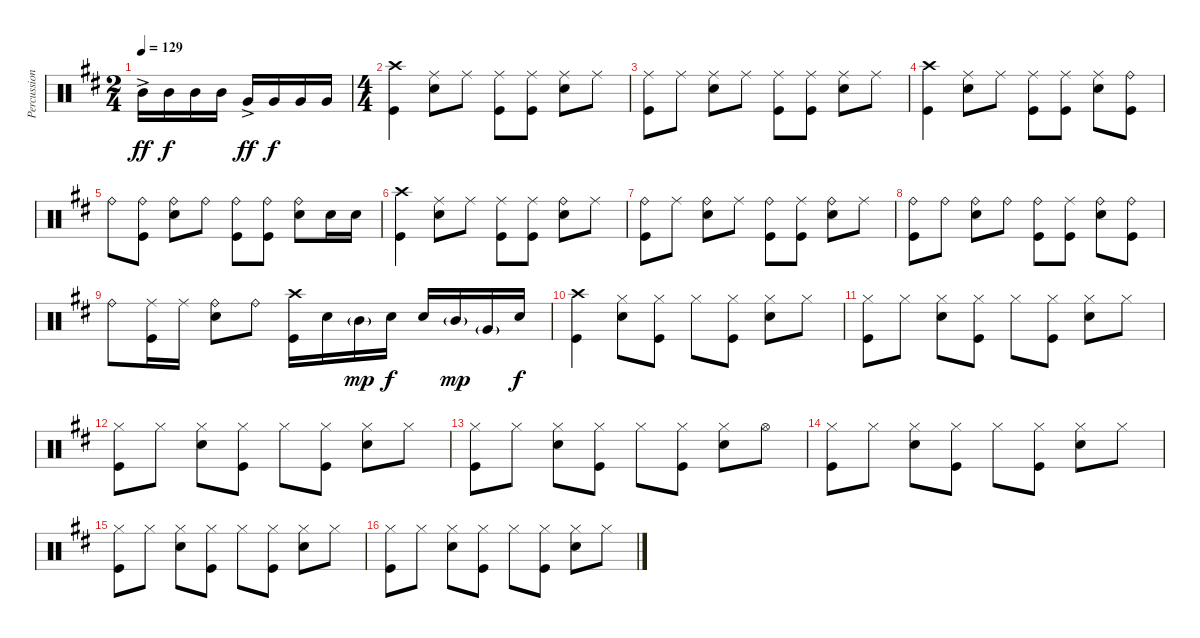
\track ("Percussion" "Percussion") {instrument percussion}
\staff {score}
\articulation defaults
\ts (2 4)
\tempo 129
\clef neutral
\ks bminor "Mid Tom (hit)"{ac}.16{dy ff} "Mid Tom (hit)".16{dy f} "Mid Tom (hit)".16 "Mid Tom (hit)".16 "Very Low Tom (hit)"{ac}.16{dy ff} "Very Low Tom (hit)".16{dy f} "Very Low Tom (hit)".16 "Very Low Tom (hit)".16
|
\ts (4 4)
("Crash high (hit)" "Kick (hit)").4 ("Ride (middle)" "Snare (hit) 2").8 "Ride (middle)".8 ("Ride (middle)" "Kick (hit)").8 ("Ride (middle)" "Kick (hit)").8 ("Ride (middle)" "Snare (hit) 2").8 "Ride (middle)".8 |
("Ride (middle)" "Kick (hit)").8 "Ride (middle)".8 ("Ride (middle)" "Snare (hit) 2").8 "Ride (middle)".8 ("Ride (middle)" "Kick (hit)").8 ("Ride (middle)" "Kick (hit)").8 ("Ride (middle)" "Snare (hit) 2").8 "Ride (middle)".8 |
("Crash high (hit)" "Kick (hit)").4 ("Ride (middle)" "Snare (hit) 2").8 "Ride (middle)".8 ("Ride (middle)" "Kick (hit)").8 ("Ride (middle)" "Kick (hit)").8 ("Ride (middle)" "Snare (hit) 2").8 ("Ride (bell)" "Kick (hit)").8 |
"Ride (bell)".8 ("Ride (bell)" "Kick (hit)").8 ("Ride (bell)" "Snare (hit) 2").8 "Ride (bell)".8 ("Ride (bell)" "Kick (hit)").8 ("Ride (bell)" "Kick (hit)").8 ("Ride (bell)" "Snare (hit) 2").8 "Snare (hit) 2".16 "Snare (hit) 2".16 |
("Crash high (hit)" "Kick (hit)").4 ("Ride (middle)" "Snare (hit) 2").8 "Ride (middle)".8 ("Ride (middle)" "Kick (hit)").8 ("Ride (middle)" "Kick (hit)").8 ("Ride (bell)" "Snare (hit) 2").8 "Ride (middle)".8 |
("Ride (bell)" "Kick (hit)").8 "Ride (middle)".8 ("Ride (bell)" "Snare (hit) 2").8 "Ride (middle)".8 ("Ride (bell)" "Kick (hit)").8 ("Ride (middle)" "Kick (hit)").8 ("Ride (bell)" "Snare (hit) 2").8 "Ride (middle)".8 |
("Ride (bell)" "Kick (hit)").8 "Ride (bell)".8 ("Ride (bell)" "Snare (hit) 2").8 "Ride (bell)".8 ("Ride (bell)" "Kick (hit)").8 ("Ride (middle)" "Kick (hit)").8 ("Ride (bell)" "Snare (hit) 2").8 ("Ride (bell)" "Kick (hit)").8 |
"Ride (bell)".8 ("Ride (middle)" "Kick (hit)").16 "Ride (middle)".16 ("Ride (bell)" "Snare (hit) 2").8 "Ride (bell)".8 ("Crash high (hit)" "Kick (hit)").16 "Snare (hit) 2".16 "Mid Tom (hit)"{g}.16{dy mp} "Snare (hit) 2".16{dy f} "Snare (hit) 2".16 "Mid Tom (hit)"{g}.16{dy mp} "Very Low Tom (hit)"{g}.16 "Snare (hit) 2".16{dy f} |
("Crash high (hit)" "Kick (hit)").4 ("Hi-Hat (closed)" "Snare (hit) 2").8 ("Hi-Hat (closed)" "Kick (hit)").8 "Hi-Hat (closed)".8 ("Hi-Hat (closed)" "Kick (hit)").8 ("Hi-Hat (closed)" "Snare (hit) 2").8 "Hi-Hat (closed)".8 |
("Hi-Hat (closed)" "Kick (hit)").8 "Hi-Hat (closed)".8 ("Hi-Hat (closed)" "Snare (hit) 2").8 ("Hi-Hat (closed)" "Kick (hit)").8 "Hi-Hat (closed)".8 ("Hi-Hat (closed)" "Kick (hit)").8 ("Hi-Hat (closed)" "Snare (hit) 2").8 "Hi-Hat (closed)".8 |
("Hi-Hat (closed)" "Kick (hit)").8 "Hi-Hat (closed)".8 ("Hi-Hat (closed)" "Snare (hit) 2").8 ("Hi-Hat (closed)" "Kick (hit)").8 "Hi-Hat (closed)".8 ("Hi-Hat (closed)" "Kick (hit)").8 ("Hi-Hat (closed)" "Snare (hit) 2").8 "Hi-Hat (closed)".8 |
("Hi-Hat (closed)" "Kick (hit)").8 "Hi-Hat (closed)".8 ("Hi-Hat (closed)" "Snare (hit) 2").8 ("Hi-Hat (closed)" "Kick (hit)").8 "Hi-Hat (closed)".8 ("Hi-Hat (closed)" "Kick (hit)").8 ("Hi-Hat (closed)" "Snare (hit) 2").8 "Hi-Hat (open)".8 |
("Hi-Hat (closed)" "Kick (hit)").8 "Hi-Hat (closed)".8 ("Hi-Hat (closed)" "Snare (hit) 2").8 ("Hi-Hat (closed)" "Kick (hit)").8 "Hi-Hat (closed)".8 ("Hi-Hat (closed)" "Kick (hit)").8 ("Hi-Hat (closed)" "Snare (hit) 2").8 "Hi-Hat (closed)".8 |
("Hi-Hat (closed)" "Kick (hit)").8 "Hi-Hat (closed)".8 ("Hi-Hat (closed)" "Snare (hit) 2").8 ("Hi-Hat (closed)" "Kick (hit)").8 "Hi-Hat (closed)".8 ("Hi-Hat (closed)" "Kick (hit)").8 ("Hi-Hat (closed)" "Snare (hit) 2").8 "Hi-Hat (closed)".8 |
("Hi-Hat (closed)" "Kick (hit)").8 "Hi-Hat (closed)".8 ("Hi-Hat (closed)" "Snare (hit) 2").8 ("Hi-Hat (closed)" "Kick (hit)").8 "Hi-Hat (closed)".8 ("Hi-Hat (closed)" "Kick (hit)").8 ("Hi-Hat (closed)" "Snare (hit) 2").8 "Hi-Hat (closed)".8
